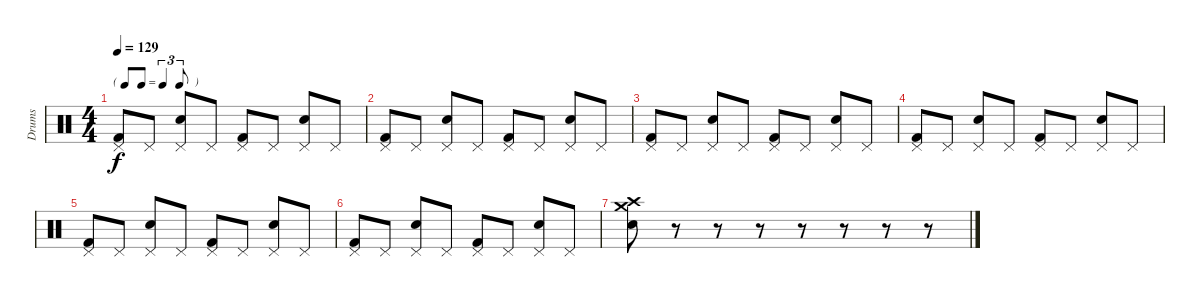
\track ("Drums" "Drums") {instrument percussion}
\staff {score}
\articulation defaults
\ts (4 4)
\tf triplet8th
\tempo 129
\clef neutral
\ks c
("Pedal Hi-Hat (hit)" "Kick (hit) 2").8{dy f} "Pedal Hi-Hat (hit)".8 ("Pedal Hi-Hat (hit)" "Electric Snare (hit)").8 "Pedal Hi-Hat (hit)".8 ("Pedal Hi-Hat (hit)" "Kick (hit) 2").8 "Pedal Hi-Hat (hit)".8 ("Pedal Hi-Hat (hit)" "Electric Snare (hit)").8 "Pedal Hi-Hat (hit)".8 |
("Pedal Hi-Hat (hit)" "Kick (hit) 2").8 "Pedal Hi-Hat (hit)".8 ("Pedal Hi-Hat (hit)" "Electric Snare (hit)").8 "Pedal Hi-Hat (hit)".8 ("Pedal Hi-Hat (hit)" "Kick (hit) 2").8 "Pedal Hi-Hat (hit)".8 ("Pedal Hi-Hat (hit)" "Electric Snare (hit)").8 "Pedal Hi-Hat (hit)".8 |
("Pedal Hi-Hat (hit)" "Kick (hit) 2").8 "Pedal Hi-Hat (hit)".8 ("Pedal Hi-Hat (hit)" "Electric Snare (hit)").8 "Pedal Hi-Hat (hit)".8 ("Pedal Hi-Hat (hit)" "Kick (hit) 2").8 "Pedal Hi-Hat (hit)".8 ("Pedal Hi-Hat (hit)" "Electric Snare (hit)").8 "Pedal Hi-Hat (hit)".8 |
("Pedal Hi-Hat (hit)" "Kick (hit) 2").8 "Pedal Hi-Hat (hit)".8 ("Pedal Hi-Hat (hit)" "Electric Snare (hit)").8 "Pedal Hi-Hat (hit)".8 ("Pedal Hi-Hat (hit)" "Kick (hit) 2").8 "Pedal Hi-Hat (hit)".8 ("Pedal Hi-Hat (hit)" "Electric Snare (hit)").8 "Pedal Hi-Hat (hit)".8 |
("Pedal Hi-Hat (hit)" "Kick (hit) 2").8 "Pedal Hi-Hat (hit)".8 ("Pedal Hi-Hat (hit)" "Electric Snare (hit)").8 "Pedal Hi-Hat (hit)".8 ("Pedal Hi-Hat (hit)" "Kick (hit) 2").8 "Pedal Hi-Hat (hit)".8 ("Pedal Hi-Hat (hit)" "Electric Snare (hit)").8 "Pedal Hi-Hat (hit)".8 |
("Pedal Hi-Hat (hit)" "Kick (hit) 2").8 "Pedal Hi-Hat (hit)".8 ("Pedal Hi-Hat (hit)" "Electric Snare (hit)").8 "Pedal Hi-Hat (hit)".8 ("Pedal Hi-Hat (hit)" "Kick (hit) 2").8 "Pedal Hi-Hat (hit)".8 ("Pedal Hi-Hat (hit)" "Electric Snare (hit)").8 "Pedal Hi-Hat (hit)".8 |
("Crash medium (hit)" "Crash high (hit)" "Electric Snare (hit)").8 r.8 r.8 r.8 r.8 r.8 r.8 r.8
